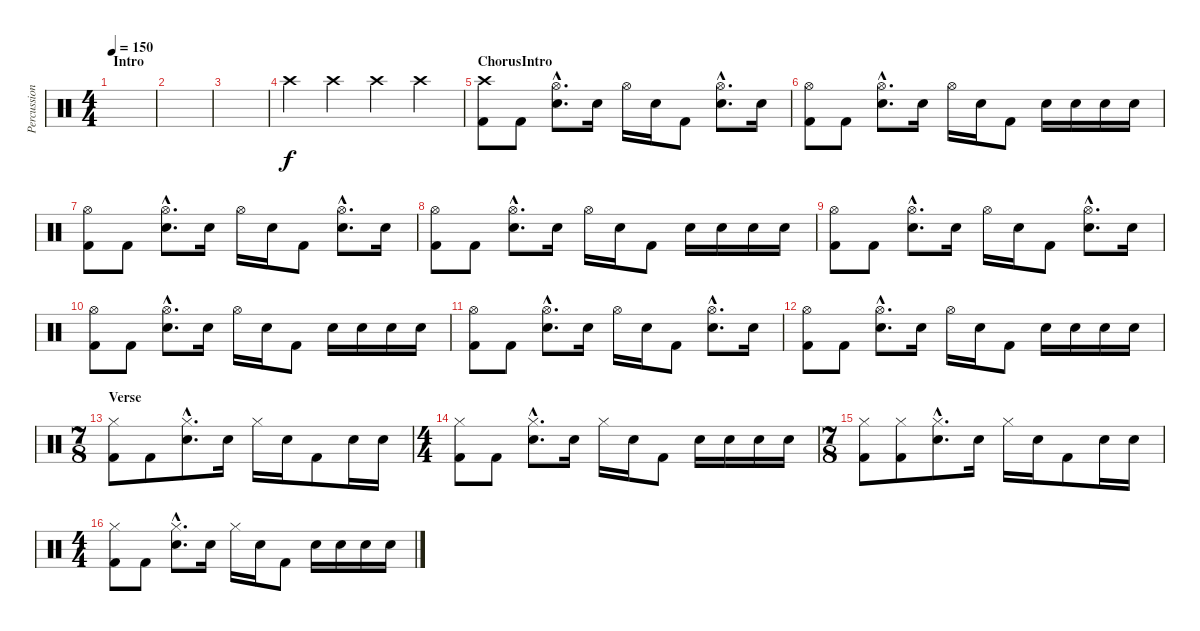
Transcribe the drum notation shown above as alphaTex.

\track ("Percussion" "Percussion") {instrument percussion}
\staff {score}
\articulation defaults
\ts (4 4)
\section ("" "Intro")
\tempo 150
\clef neutral
\ks c
|
|
|
"Crash high (hit)".4 "Crash high (hit)".4 "Crash high (hit)".4 "Crash high (hit)".4 |
\section ("" "ChorusIntro")
("Crash high (hit)" "Kick (hit) 2").8 "Kick (hit) 2".8 ("Hi-Hat (open)"{hac} "Electric Snare (hit)"{hac}).8{d} "Electric Snare (hit)".16 "Hi-Hat (open)".16 "Electric Snare (hit)".16 "Kick (hit) 2".8 ("Hi-Hat (open)"{hac} "Electric Snare (hit)"{hac}).8{d} "Electric Snare (hit)".16 |
("Hi-Hat (open)" "Kick (hit) 2").8 "Kick (hit) 2".8 ("Hi-Hat (open)"{hac} "Electric Snare (hit)"{hac}).8{d} "Electric Snare (hit)".16 "Hi-Hat (open)".16 "Electric Snare (hit)".16 "Kick (hit) 2".8 "Electric Snare (hit)".16 "Electric Snare (hit)".16 "Electric Snare (hit)".16 "Electric Snare (hit)".16 |
("Hi-Hat (open)" "Kick (hit) 2").8 "Kick (hit) 2".8 ("Hi-Hat (open)"{hac} "Electric Snare (hit)"{hac}).8{d} "Electric Snare (hit)".16 "Hi-Hat (open)".16 "Electric Snare (hit)".16 "Kick (hit) 2".8 ("Hi-Hat (open)"{hac} "Electric Snare (hit)"{hac}).8{d} "Electric Snare (hit)".16 |
("Hi-Hat (open)" "Kick (hit) 2").8 "Kick (hit) 2".8 ("Hi-Hat (open)"{hac} "Electric Snare (hit)"{hac}).8{d} "Electric Snare (hit)".16 "Hi-Hat (open)".16 "Electric Snare (hit)".16 "Kick (hit) 2".8 "Electric Snare (hit)".16 "Electric Snare (hit)".16 "Electric Snare (hit)".16 "Electric Snare (hit)".16 |
("Hi-Hat (open)" "Kick (hit) 2").8 "Kick (hit) 2".8 ("Hi-Hat (open)"{hac} "Electric Snare (hit)"{hac}).8{d} "Electric Snare (hit)".16 "Hi-Hat (open)".16 "Electric Snare (hit)".16 "Kick (hit) 2".8 ("Hi-Hat (open)"{hac} "Electric Snare (hit)"{hac}).8{d} "Electric Snare (hit)".16 |
("Hi-Hat (open)" "Kick (hit) 2").8 "Kick (hit) 2".8 ("Hi-Hat (open)"{hac} "Electric Snare (hit)"{hac}).8{d} "Electric Snare (hit)".16 "Hi-Hat (open)".16 "Electric Snare (hit)".16 "Kick (hit) 2".8 "Electric Snare (hit)".16 "Electric Snare (hit)".16 "Electric Snare (hit)".16 "Electric Snare (hit)".16 |
("Hi-Hat (open)" "Kick (hit) 2").8 "Kick (hit) 2".8 ("Hi-Hat (open)"{hac} "Electric Snare (hit)"{hac}).8{d} "Electric Snare (hit)".16 "Hi-Hat (open)".16 "Electric Snare (hit)".16 "Kick (hit) 2".8 ("Hi-Hat (open)"{hac} "Electric Snare (hit)"{hac}).8{d} "Electric Snare (hit)".16 |
("Hi-Hat (open)" "Kick (hit) 2").8 "Kick (hit) 2".8 ("Hi-Hat (open)"{hac} "Electric Snare (hit)"{hac}).8{d} "Electric Snare (hit)".16 "Hi-Hat (open)".16 "Electric Snare (hit)".16 "Kick (hit) 2".8 "Electric Snare (hit)".16 "Electric Snare (hit)".16 "Electric Snare (hit)".16 "Electric Snare (hit)".16 |
\ts (7 8)
\section ("" "Verse")
("Hi-Hat (closed)" "Kick (hit) 2").8 "Kick (hit) 2".8 ("Hi-Hat (closed)"{hac} "Electric Snare (hit)"{hac}).8{d} "Electric Snare (hit)".16 "Hi-Hat (closed)".16 "Electric Snare (hit)".16 "Kick (hit) 2".8 "Electric Snare (hit)".16 "Electric Snare (hit)".16 |
\ts (4 4)
("Hi-Hat (closed)" "Kick (hit) 2").8 "Kick (hit) 2".8 ("Hi-Hat (closed)"{hac} "Electric Snare (hit)"{hac}).8{d} "Electric Snare (hit)".16 "Hi-Hat (closed)".16 "Electric Snare (hit)".16 "Kick (hit) 2".8 "Electric Snare (hit)".16 "Electric Snare (hit)".16 "Electric Snare (hit)".16 "Electric Snare (hit)".16 |
\ts (7 8)
("Hi-Hat (closed)" "Kick (hit) 2").8 ("Hi-Hat (closed)" "Kick (hit) 2").8 ("Hi-Hat (closed)"{hac} "Electric Snare (hit)"{hac}).8{d} "Electric Snare (hit)".16 "Hi-Hat (closed)".16 "Electric Snare (hit)".16 "Kick (hit) 2".8 "Electric Snare (hit)".16 "Electric Snare (hit)".16 |
\ts (4 4)
("Hi-Hat (closed)" "Kick (hit) 2").8 "Kick (hit) 2".8 ("Hi-Hat (closed)"{hac} "Electric Snare (hit)"{hac}).8{d} "Electric Snare (hit)".16 "Hi-Hat (closed)".16 "Electric Snare (hit)".16 "Kick (hit) 2".8 "Electric Snare (hit)".16 "Electric Snare (hit)".16 "Electric Snare (hit)".16 "Electric Snare (hit)".16
